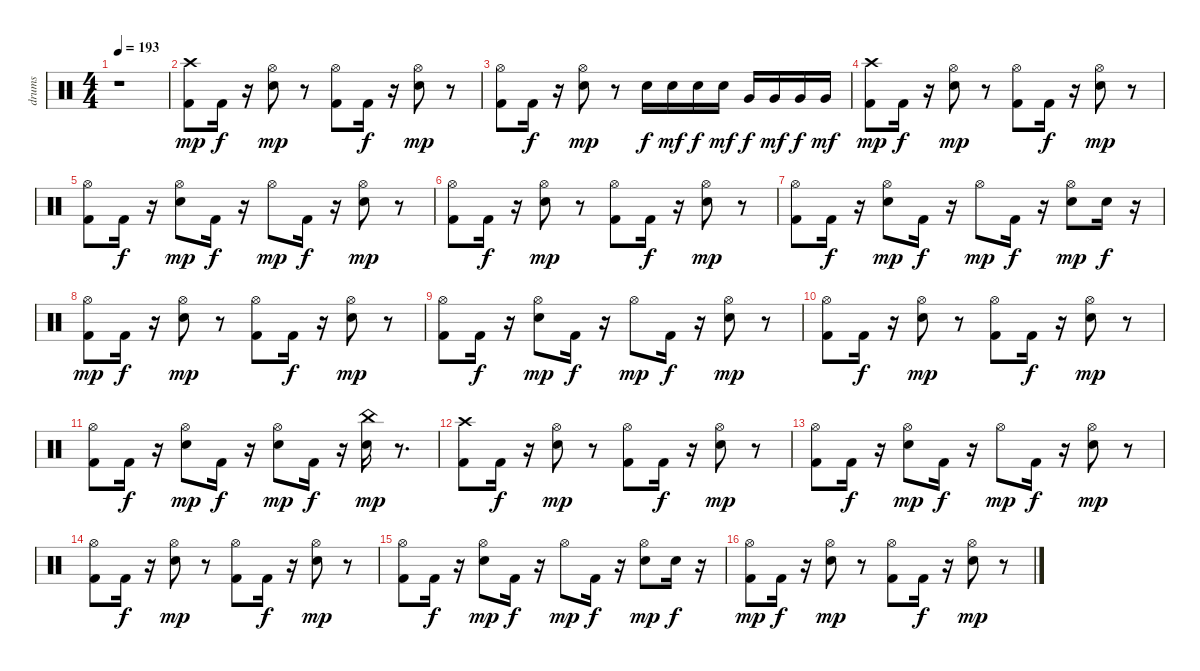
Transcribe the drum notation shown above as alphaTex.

\track ("drums" "drums") {instrument percussion}
\staff {score}
\articulation defaults
\ts (4 4)
\tempo 193
\clef neutral
\ks c
r.1{dy mp} |
("Kick (hit) 2" "Crash high (hit)").8 "Kick (hit) 2".16{dy f} r.16 ("Snare (hit) 2" "Hi-Hat (open)").8{dy mp} r.8 ("Kick (hit) 2" "Hi-Hat (open)").8 "Kick (hit) 2".16{dy f} r.16 ("Snare (hit) 2" "Hi-Hat (open)").8{dy mp} r.8 |
("Kick (hit) 2" "Hi-Hat (open)").8 "Kick (hit) 2".16{dy f} r.16 ("Snare (hit) 2" "Hi-Hat (open)").8{dy mp} r.8 "Snare (hit) 2".16{dy f} "Snare (hit) 2".16{dy mf} "Snare (hit) 2".16{dy f} "Snare (hit) 2".16{dy mf} "Very Low Tom (hit)".16{dy f} "Very Low Tom (hit)".16{dy mf} "Very Low Tom (hit)".16{dy f} "Very Low Tom (hit)".16{dy mf} |
("Kick (hit) 2" "Crash high (hit)").8{dy mp} "Kick (hit) 2".16{dy f} r.16 ("Snare (hit) 2" "Hi-Hat (open)").8{dy mp} r.8 ("Kick (hit) 2" "Hi-Hat (open)").8 "Kick (hit) 2".16{dy f} r.16 ("Snare (hit) 2" "Hi-Hat (open)").8{dy mp} r.8 |
("Kick (hit) 2" "Hi-Hat (open)").8 "Kick (hit) 2".16{dy f} r.16 ("Snare (hit) 2" "Hi-Hat (open)").8{dy mp} "Kick (hit) 2".16{dy f} r.16 "Hi-Hat (open)".8{dy mp} "Kick (hit) 2".16{dy f} r.16 ("Snare (hit) 2" "Hi-Hat (open)").8{dy mp} r.8 |
("Kick (hit) 2" "Hi-Hat (open)").8 "Kick (hit) 2".16{dy f} r.16 ("Snare (hit) 2" "Hi-Hat (open)").8{dy mp} r.8 ("Kick (hit) 2" "Hi-Hat (open)").8 "Kick (hit) 2".16{dy f} r.16 ("Snare (hit) 2" "Hi-Hat (open)").8{dy mp} r.8 |
("Kick (hit) 2" "Hi-Hat (open)").8 "Kick (hit) 2".16{dy f} r.16 ("Snare (hit) 2" "Hi-Hat (open)").8{dy mp} "Kick (hit) 2".16{dy f} r.16 "Hi-Hat (open)".8{dy mp} "Kick (hit) 2".16{dy f} r.16 ("Snare (hit) 2" "Hi-Hat (open)").8{dy mp} "Snare (hit) 2".16{dy f} r.16 |
("Kick (hit) 2" "Hi-Hat (open)").8{dy mp} "Kick (hit) 2".16{dy f} r.16 ("Snare (hit) 2" "Hi-Hat (open)").8{dy mp} r.8 ("Kick (hit) 2" "Hi-Hat (open)").8 "Kick (hit) 2".16{dy f} r.16 ("Snare (hit) 2" "Hi-Hat (open)").8{dy mp} r.8 |
("Kick (hit) 2" "Hi-Hat (open)").8 "Kick (hit) 2".16{dy f} r.16 ("Snare (hit) 2" "Hi-Hat (open)").8{dy mp} "Kick (hit) 2".16{dy f} r.16 "Hi-Hat (open)".8{dy mp} "Kick (hit) 2".16{dy f} r.16 ("Snare (hit) 2" "Hi-Hat (open)").8{dy mp} r.8 |
("Kick (hit) 2" "Hi-Hat (open)").8 "Kick (hit) 2".16{dy f} r.16 ("Snare (hit) 2" "Hi-Hat (open)").8{dy mp} r.8 ("Kick (hit) 2" "Hi-Hat (open)").8 "Kick (hit) 2".16{dy f} r.16 ("Snare (hit) 2" "Hi-Hat (open)").8{dy mp} r.8 |
("Kick (hit) 2" "Hi-Hat (open)").8 "Kick (hit) 2".16{dy f} r.16 ("Snare (hit) 2" "Hi-Hat (open)").8{dy mp} "Kick (hit) 2".16{dy f} r.16 ("Snare (hit) 2" "Hi-Hat (open)").8{dy mp} "Kick (hit) 2".16{dy f} r.16 ("Snare (hit) 2" "China (hit)").16{dy mp} r.8{d} |
("Kick (hit) 2" "Crash high (hit)").8 "Kick (hit) 2".16{dy f} r.16 ("Snare (hit) 2" "Hi-Hat (open)").8{dy mp} r.8 ("Kick (hit) 2" "Hi-Hat (open)").8 "Kick (hit) 2".16{dy f} r.16 ("Snare (hit) 2" "Hi-Hat (open)").8{dy mp} r.8 |
("Kick (hit) 2" "Hi-Hat (open)").8 "Kick (hit) 2".16{dy f} r.16 ("Snare (hit) 2" "Hi-Hat (open)").8{dy mp} "Kick (hit) 2".16{dy f} r.16 "Hi-Hat (open)".8{dy mp} "Kick (hit) 2".16{dy f} r.16 ("Snare (hit) 2" "Hi-Hat (open)").8{dy mp} r.8 |
("Kick (hit) 2" "Hi-Hat (open)").8 "Kick (hit) 2".16{dy f} r.16 ("Snare (hit) 2" "Hi-Hat (open)").8{dy mp} r.8 ("Kick (hit) 2" "Hi-Hat (open)").8 "Kick (hit) 2".16{dy f} r.16 ("Snare (hit) 2" "Hi-Hat (open)").8{dy mp} r.8 |
("Kick (hit) 2" "Hi-Hat (open)").8 "Kick (hit) 2".16{dy f} r.16 ("Snare (hit) 2" "Hi-Hat (open)").8{dy mp} "Kick (hit) 2".16{dy f} r.16 "Hi-Hat (open)".8{dy mp} "Kick (hit) 2".16{dy f} r.16 ("Snare (hit) 2" "Hi-Hat (open)").8{dy mp} "Snare (hit) 2".16{dy f} r.16 |
("Kick (hit) 2" "Hi-Hat (open)").8{dy mp} "Kick (hit) 2".16{dy f} r.16 ("Snare (hit) 2" "Hi-Hat (open)").8{dy mp} r.8 ("Kick (hit) 2" "Hi-Hat (open)").8 "Kick (hit) 2".16{dy f} r.16 ("Snare (hit) 2" "Hi-Hat (open)").8{dy mp} r.8
